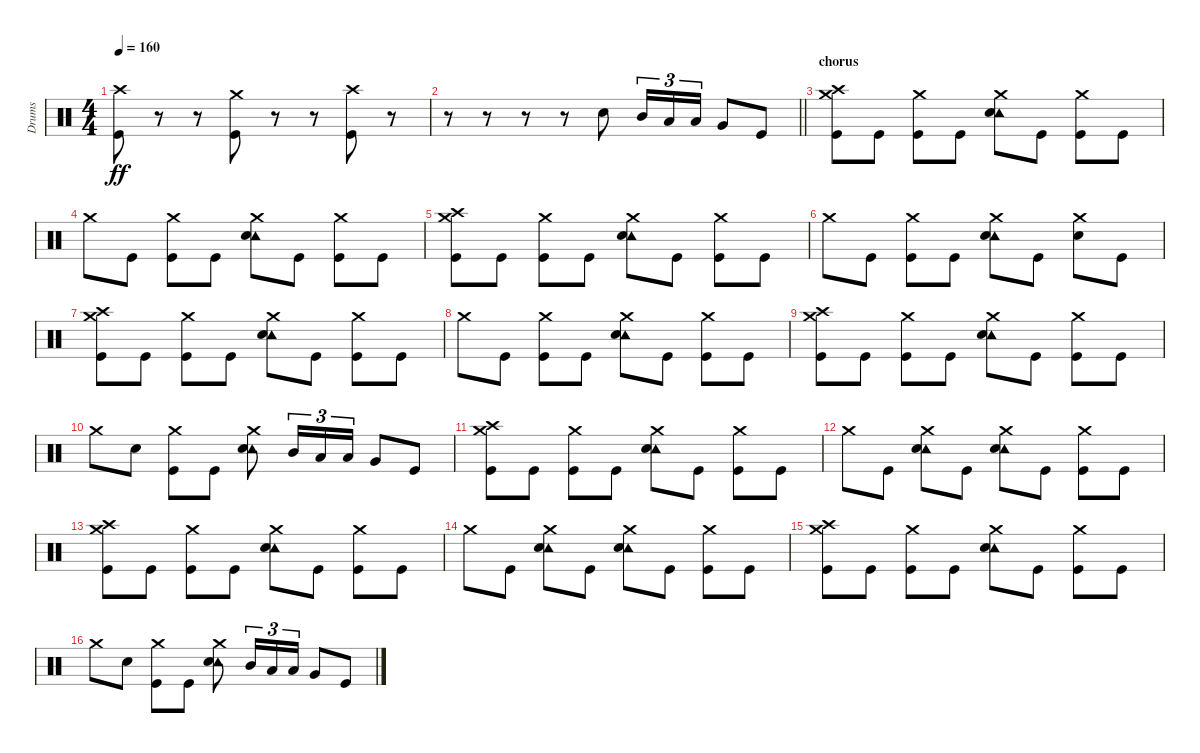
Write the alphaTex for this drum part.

\track ("Drums" "Drums") {instrument percussion}
\staff {score}
\articulation defaults
\ts (4 4)
\tempo 160
\clef neutral
\ks c
("Crash high (hit)" "Kick (hit)").8{dy ff} r.8 r.8 ("Crash medium (hit)" "Kick (hit)").8 r.8 r.8 ("Crash high (hit)" "Kick (hit)").8 r.8 |
\barLineRight lightlight
r.8 r.8 r.8 r.8 "Electric Snare (hit)".8 "Mid Tom (hit)".16{tu (3 2)} "Low Tom (hit)".16{tu (3 2)} "Low Tom (hit)".16{tu (3 2)} "Very Low Tom (hit)".8 "Kick (hit)".8 |
\section ("" "chorus")
("Crash medium (hit)" "Crash high (hit)" "Kick (hit)").8 "Kick (hit)".8 ("Crash medium (hit)" "Kick (hit)").8 "Kick (hit)".8 ("Tambourine (hit)" "Crash medium (hit)" "Electric Snare (hit)").8 "Kick (hit)".8 ("Crash medium (hit)" "Kick (hit)").8 "Kick (hit)".8 |
"Crash medium (hit)".8 "Kick (hit)".8 ("Crash medium (hit)" "Kick (hit)").8 "Kick (hit)".8 ("Tambourine (hit)" "Crash medium (hit)" "Electric Snare (hit)").8 "Kick (hit)".8 ("Crash medium (hit)" "Kick (hit)").8 "Kick (hit)".8 |
("Crash medium (hit)" "Crash high (hit)" "Kick (hit)").8 "Kick (hit)".8 ("Crash medium (hit)" "Kick (hit)").8 "Kick (hit)".8 ("Tambourine (hit)" "Crash medium (hit)" "Electric Snare (hit)").8 "Kick (hit)".8 ("Crash medium (hit)" "Kick (hit)").8 "Kick (hit)".8 |
"Crash medium (hit)".8 "Kick (hit)".8 ("Crash medium (hit)" "Kick (hit)").8 "Kick (hit)".8 ("Tambourine (hit)" "Crash medium (hit)" "Electric Snare (hit)").8 "Kick (hit)".8 ("Crash medium (hit)" "Electric Snare (hit)").8 "Kick (hit)".8 |
("Crash medium (hit)" "Crash high (hit)" "Kick (hit)").8 "Kick (hit)".8 ("Crash medium (hit)" "Kick (hit)").8 "Kick (hit)".8 ("Tambourine (hit)" "Crash medium (hit)" "Electric Snare (hit)").8 "Kick (hit)".8 ("Crash medium (hit)" "Kick (hit)").8 "Kick (hit)".8 |
"Crash medium (hit)".8 "Kick (hit)".8 ("Crash medium (hit)" "Kick (hit)").8 "Kick (hit)".8 ("Tambourine (hit)" "Crash medium (hit)" "Electric Snare (hit)").8 "Kick (hit)".8 ("Crash medium (hit)" "Kick (hit)").8 "Kick (hit)".8 |
("Crash medium (hit)" "Crash high (hit)" "Kick (hit)").8 "Kick (hit)".8 ("Crash medium (hit)" "Kick (hit)").8 "Kick (hit)".8 ("Tambourine (hit)" "Crash medium (hit)" "Electric Snare (hit)").8 "Kick (hit)".8 ("Crash medium (hit)" "Kick (hit)").8 "Kick (hit)".8 |
"Crash medium (hit)".8 "Electric Snare (hit)".8 ("Crash medium (hit)" "Kick (hit)").8 "Kick (hit)".8 ("Tambourine (hit)" "Crash medium (hit)" "Electric Snare (hit)").8 "Mid Tom (hit)".16{tu (3 2)} "Low Tom (hit)".16{tu (3 2)} "Low Tom (hit)".16{tu (3 2)} "Very Low Tom (hit)".8 "Kick (hit)".8 |
("Crash medium (hit)" "Crash high (hit)" "Kick (hit)").8 "Kick (hit)".8 ("Crash medium (hit)" "Kick (hit)").8 "Kick (hit)".8 ("Tambourine (hit)" "Crash medium (hit)" "Electric Snare (hit)").8 "Kick (hit)".8 ("Crash medium (hit)" "Kick (hit)").8 "Kick (hit)".8 |
"Crash medium (hit)".8 "Kick (hit)".8 ("Tambourine (hit)" "Crash medium (hit)" "Electric Snare (hit)").8 "Kick (hit)".8 ("Tambourine (hit)" "Crash medium (hit)" "Electric Snare (hit)").8 "Kick (hit)".8 ("Crash medium (hit)" "Kick (hit)").8 "Kick (hit)".8 |
("Crash medium (hit)" "Crash high (hit)" "Kick (hit)").8 "Kick (hit)".8 ("Crash medium (hit)" "Kick (hit)").8 "Kick (hit)".8 ("Tambourine (hit)" "Crash medium (hit)" "Electric Snare (hit)").8 "Kick (hit)".8 ("Crash medium (hit)" "Kick (hit)").8 "Kick (hit)".8 |
"Crash medium (hit)".8 "Kick (hit)".8 ("Tambourine (hit)" "Crash medium (hit)" "Electric Snare (hit)").8 "Kick (hit)".8 ("Tambourine (hit)" "Crash medium (hit)" "Electric Snare (hit)").8 "Kick (hit)".8 ("Crash medium (hit)" "Kick (hit)").8 "Kick (hit)".8 |
("Crash medium (hit)" "Crash high (hit)" "Kick (hit)").8 "Kick (hit)".8 ("Crash medium (hit)" "Kick (hit)").8 "Kick (hit)".8 ("Tambourine (hit)" "Crash medium (hit)" "Electric Snare (hit)").8 "Kick (hit)".8 ("Crash medium (hit)" "Kick (hit)").8 "Kick (hit)".8 |
"Crash medium (hit)".8 "Electric Snare (hit)".8 ("Crash medium (hit)" "Kick (hit)").8 "Kick (hit)".8 ("Tambourine (hit)" "Crash medium (hit)" "Electric Snare (hit)").8 "Mid Tom (hit)".16{tu (3 2)} "Low Tom (hit)".16{tu (3 2)} "Low Tom (hit)".16{tu (3 2)} "Very Low Tom (hit)".8 "Kick (hit)".8
